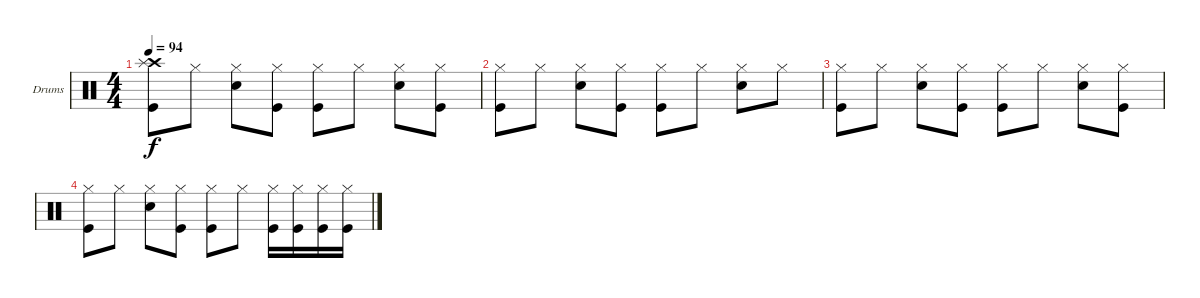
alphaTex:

\defaultSystemsLayout 4
\bracketExtendMode groupsimilarinstruments
\firstSystemTrackNameOrientation horizontal
\otherSystemsTrackNameOrientation horizontal
\track ("Drumkit" "Drums") {instrument percussion}
\staff {score}
\articulation defaults
\ts (4 4)
\tempo 94
\clef neutral
\ks c
("Kick (hit)" "Crash high (hit)" "Splash (hit)").8{dy f} "Hi-Hat (closed)".8 ("Hi-Hat (closed)" "Snare (hit) 2").8 ("Kick (hit)" "Hi-Hat (closed)").8 ("Kick (hit)" "Hi-Hat (closed)").8 "Hi-Hat (closed)".8 ("Snare (hit) 2" "Hi-Hat (closed)").8 ("Hi-Hat (closed)" "Kick (hit)").8 |
("Kick (hit)" "Hi-Hat (closed)").8 "Hi-Hat (closed)".8 ("Hi-Hat (closed)" "Snare (hit) 2").8 ("Hi-Hat (closed)" "Kick (hit)").8 ("Kick (hit)" "Hi-Hat (closed)").8 "Hi-Hat (closed)".8 ("Hi-Hat (closed)" "Snare (hit) 2").8 "Hi-Hat (closed)".8 |
("Kick (hit)" "Hi-Hat (closed)").8 "Hi-Hat (closed)".8 ("Hi-Hat (closed)" "Snare (hit) 2").8 ("Kick (hit)" "Hi-Hat (closed)").8 ("Kick (hit)" "Hi-Hat (closed)").8 "Hi-Hat (closed)".8 ("Snare (hit) 2" "Hi-Hat (closed)").8 ("Hi-Hat (closed)" "Kick (hit)").8 |
("Kick (hit)" "Hi-Hat (closed)").8 "Hi-Hat (closed)".8 ("Hi-Hat (closed)" "Snare (hit) 2").8 ("Hi-Hat (closed)" "Kick (hit)").8 ("Kick (hit)" "Hi-Hat (closed)").8 "Hi-Hat (closed)".8 ("Hi-Hat (closed)" "Kick (hit)").16 ("Hi-Hat (closed)" "Kick (hit)").16 ("Kick (hit)" "Hi-Hat (closed)").16 ("Kick (hit)" "Hi-Hat (closed)").16
